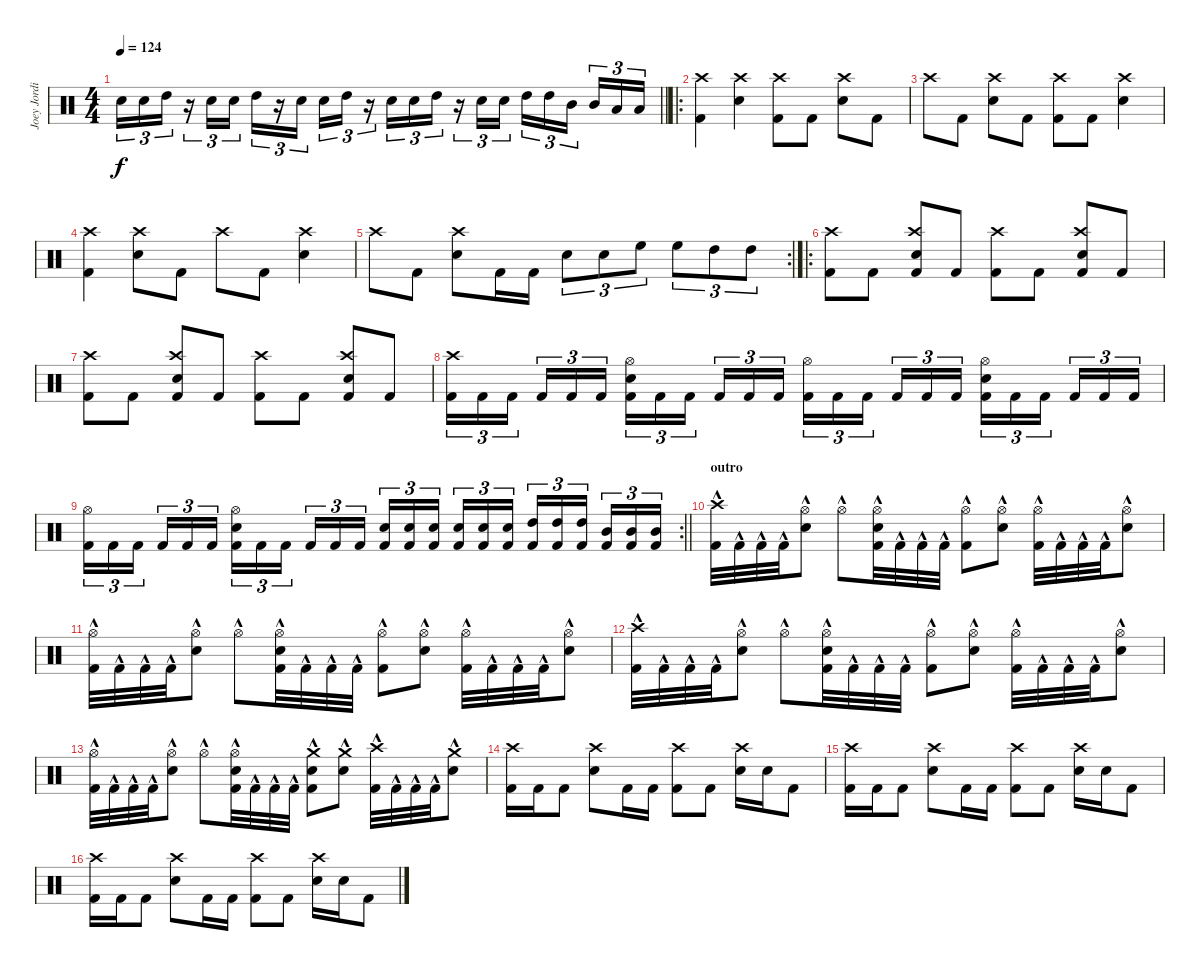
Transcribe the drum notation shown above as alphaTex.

\track ("Joey Jordison" "Joey Jordi") {instrument percussion}
\staff
\articulation defaults
\ts (4 4)
\tempo 124
\clef neutral
\barLineRight lightlight
\ks c "Electric Snare (hit)".16{tu (3 2) dy f} "Electric Snare (hit)".16{tu (3 2)} "High Tom (hit)".16{tu (3 2)}
r.16{tu (3 2)} "Electric Snare (hit)".16{tu (3 2)} "Electric Snare (hit)".16{tu (3 2)} "High Tom (hit)".16{tu (3 2)} r.16{tu (3 2)} "Electric Snare (hit)".16{tu (3 2) beam splitsecondary} "Electric Snare (hit)".16{tu (3 2)} "High Tom (hit)".16{tu (3 2)} r.16{tu (3 2)} "Electric Snare (hit)".16{tu (3 2)} "Electric Snare (hit)".16{tu (3 2)} "High Tom (hit)".16{tu (3 2)} r.16{tu (3 2)} "Electric Snare (hit)".16{tu (3 2)} "Electric Snare (hit)".16{tu (3 2)} "High Tom (hit)".16{tu (3 2)} "High Tom (hit)".16{tu (3 2)} "Mid Tom (hit)".16{tu (3 2) beam splitsecondary} "Mid Tom (hit)".16{tu (3 2)} "Low Tom (hit)".16{tu (3 2)} "Low Tom (hit)".16{tu (3 2)} |
\ro
("Crash high (hit)" "Kick (hit) 2").4 ("Crash high (hit)" "Electric Snare (hit)").4 ("Crash high (hit)" "Kick (hit) 2").8 "Kick (hit) 2".8 ("Crash high (hit)" "Electric Snare (hit)").8 "Kick (hit) 2".8 |
"Crash high (hit)".8 "Kick (hit) 2".8 ("Crash high (hit)" "Electric Snare (hit)").8 "Kick (hit) 2".8 ("Crash high (hit)" "Kick (hit) 2").8 "Kick (hit) 2".8 ("Crash high (hit)" "Electric Snare (hit)").4 |
("Crash high (hit)" "Kick (hit) 2").4 ("Crash high (hit)" "Electric Snare (hit)").8 "Kick (hit) 2".8 "Crash high (hit)".8 "Kick (hit) 2".8 ("Crash high (hit)" "Electric Snare (hit)").4 |
\rc 2 "Crash high (hit)".8 "Kick (hit) 2".8
("Crash high (hit)" "Electric Snare (hit)").8 "Kick (hit) 2".16 "Kick (hit) 2".16 "Electric Snare (hit)".8{tu (3 2)} "Electric Snare (hit)".8{tu (3 2)} "High Floor Tom (hit)".8{tu (3 2)} "High Floor Tom (hit)".8{tu (3 2)} "High Tom (hit)".8{tu (3 2)} "High Tom (hit)".8{tu (3 2)} |
\ro
("Crash high (hit)" "Kick (hit) 2").8 "Kick (hit) 2".8 ("Crash high (hit)" "Electric Snare (hit)" "Kick (hit) 2").8 "Kick (hit) 2".8 ("Crash high (hit)" "Kick (hit) 2").8 "Kick (hit) 2".8 ("Crash high (hit)" "Electric Snare (hit)" "Kick (hit) 2").8 "Kick (hit) 2".8 |
("Crash high (hit)" "Kick (hit) 2").8 "Kick (hit) 2".8 ("Crash high (hit)" "Electric Snare (hit)" "Kick (hit) 2").8 "Kick (hit) 2".8 ("Crash high (hit)" "Kick (hit) 2").8 "Kick (hit) 2".8 ("Crash high (hit)" "Electric Snare (hit)" "Kick (hit) 2").8 "Kick (hit) 2".8 |
("Crash high (hit)" "Kick (hit) 2").16{tu (3 2)} "Kick (hit) 2".16{tu (3 2)} "Kick (hit) 2".16{tu (3 2) beam splitsecondary} "Kick (hit) 2".16{tu (3 2)} "Kick (hit) 2".16{tu (3 2)} "Kick (hit) 2".16{tu (3 2)} ("Hi-Hat (open)" "Electric Snare (hit)" "Kick (hit) 2").16{tu (3 2)} "Kick (hit) 2".16{tu (3 2)} "Kick (hit) 2".16{tu (3 2) beam splitsecondary} "Kick (hit) 2".16{tu (3 2)} "Kick (hit) 2".16{tu (3 2)} "Kick (hit) 2".16{tu (3 2)} ("Hi-Hat (open)" "Kick (hit) 2").16{tu (3 2)} "Kick (hit) 2".16{tu (3 2)} "Kick (hit) 2".16{tu (3 2) beam splitsecondary} "Kick (hit) 2".16{tu (3 2)} "Kick (hit) 2".16{tu (3 2)} "Kick (hit) 2".16{tu (3 2)} ("Hi-Hat (open)" "Electric Snare (hit)" "Kick (hit) 2").16{tu (3 2)} "Kick (hit) 2".16{tu (3 2)} "Kick (hit) 2".16{tu (3 2) beam splitsecondary} "Kick (hit) 2".16{tu (3 2)} "Kick (hit) 2".16{tu (3 2)} "Kick (hit) 2".16{tu (3 2)} |
\rc 2
\barLineRight lightlight
("Hi-Hat (open)" "Kick (hit) 2").16{tu (3 2)} "Kick (hit) 2".16{tu (3 2)} "Kick (hit) 2".16{tu (3 2) beam splitsecondary} "Kick (hit) 2".16{tu (3 2)} "Kick (hit) 2".16{tu (3 2)} "Kick (hit) 2".16{tu (3 2)} ("Hi-Hat (open)" "Electric Snare (hit)" "Kick (hit) 2").16{tu (3 2)} "Kick (hit) 2".16{tu (3 2)} "Kick (hit) 2".16{tu (3 2) beam splitsecondary} "Kick (hit) 2".16{tu (3 2)} "Kick (hit) 2".16{tu (3 2)} "Kick (hit) 2".16{tu (3 2)} ("Electric Snare (hit)" "Kick (hit) 2").16{tu (3 2)} ("Electric Snare (hit)" "Kick (hit) 2").16{tu (3 2)} ("Electric Snare (hit)" "Kick (hit) 2").16{tu (3 2) beam splitsecondary} ("Electric Snare (hit)" "Kick (hit) 2").16{tu (3 2)} ("Electric Snare (hit)" "Kick (hit) 2").16{tu (3 2)} ("Electric Snare (hit)" "Kick (hit) 2").16{tu (3 2)} ("High Tom (hit)" "Kick (hit) 2").16{tu (3 2)} ("High Tom (hit)" "Kick (hit) 2").16{tu (3 2)} ("High Tom (hit)" "Kick (hit) 2").16{tu (3 2) beam splitsecondary} ("Mid Tom (hit)" "Kick (hit) 2").16{tu (3 2)} ("Mid Tom (hit)" "Kick (hit) 2").16{tu (3 2)} ("Mid Tom (hit)" "Kick (hit) 2").16{tu (3 2)} |
\section ("" "outro")
("Crash high (hit)"{hac} "Kick (hit) 2"{hac}).32 "Kick (hit) 2"{hac}.32 "Kick (hit) 2"{hac}.32 "Kick (hit) 2"{hac}.32 ("Hi-Hat (open)"{hac} "Electric Snare (hit)"{hac}).8 "Hi-Hat (open)"{hac}.8 ("Hi-Hat (open)"{hac} "Electric Snare (hit)"{hac} "Kick (hit) 2"{hac}).32 "Kick (hit) 2"{hac}.32 "Kick (hit) 2"{hac}.32 "Kick (hit) 2"{hac}.32 ("Hi-Hat (open)"{hac} "Kick (hit) 2"{hac}).8 ("Hi-Hat (open)"{hac} "Electric Snare (hit)"{hac}).8 ("Hi-Hat (open)"{hac} "Kick (hit) 2"{hac}).32 "Kick (hit) 2"{hac}.32 "Kick (hit) 2"{hac}.32 "Kick (hit) 2"{hac}.32 ("Hi-Hat (open)"{hac} "Electric Snare (hit)"{hac}).8 |
("Hi-Hat (open)"{hac} "Kick (hit) 2"{hac}).32 "Kick (hit) 2"{hac}.32 "Kick (hit) 2"{hac}.32 "Kick (hit) 2"{hac}.32 ("Hi-Hat (open)"{hac} "Electric Snare (hit)"{hac}).8 "Hi-Hat (open)"{hac}.8 ("Hi-Hat (open)"{hac} "Electric Snare (hit)"{hac} "Kick (hit) 2"{hac}).32 "Kick (hit) 2"{hac}.32 "Kick (hit) 2"{hac}.32 "Kick (hit) 2"{hac}.32 ("Hi-Hat (open)"{hac} "Kick (hit) 2"{hac}).8 ("Hi-Hat (open)"{hac} "Electric Snare (hit)"{hac}).8 ("Hi-Hat (open)"{hac} "Kick (hit) 2"{hac}).32 "Kick (hit) 2"{hac}.32 "Kick (hit) 2"{hac}.32 "Kick (hit) 2"{hac}.32 ("Hi-Hat (open)"{hac} "Electric Snare (hit)"{hac}).8 |
("Crash high (hit)"{hac} "Kick (hit) 2"{hac}).32 "Kick (hit) 2"{hac}.32 "Kick (hit) 2"{hac}.32 "Kick (hit) 2"{hac}.32 ("Hi-Hat (open)"{hac} "Electric Snare (hit)"{hac}).8 "Hi-Hat (open)"{hac}.8 ("Hi-Hat (open)"{hac} "Electric Snare (hit)"{hac} "Kick (hit) 2"{hac}).32 "Kick (hit) 2"{hac}.32 "Kick (hit) 2"{hac}.32 "Kick (hit) 2"{hac}.32 ("Hi-Hat (open)"{hac} "Kick (hit) 2"{hac}).8 ("Hi-Hat (open)"{hac} "Electric Snare (hit)"{hac}).8 ("Hi-Hat (open)"{hac} "Kick (hit) 2"{hac}).32 "Kick (hit) 2"{hac}.32 "Kick (hit) 2"{hac}.32 "Kick (hit) 2"{hac}.32 ("Hi-Hat (open)"{hac} "Electric Snare (hit)"{hac}).8 |
("Hi-Hat (open)"{hac} "Kick (hit) 2"{hac}).32 "Kick (hit) 2"{hac}.32 "Kick (hit) 2"{hac}.32 "Kick (hit) 2"{hac}.32 ("Hi-Hat (open)"{hac} "Electric Snare (hit)"{hac}).8 "Hi-Hat (open)"{hac}.8 ("Hi-Hat (open)"{hac} "Electric Snare (hit)"{hac} "Kick (hit) 2"{hac}).32 "Kick (hit) 2"{hac}.32 "Kick (hit) 2"{hac}.32 "Kick (hit) 2"{hac}.32 ("Crash medium (hit)"{hac} "Electric Snare (hit)" "Kick (hit) 2"{hac}).8 ("Crash medium (hit)"{hac} "Electric Snare (hit)"{hac}).8 ("Crash high (hit)"{hac} "Kick (hit) 2"{hac}).32 "Kick (hit) 2"{hac}.32 "Kick (hit) 2"{hac}.32 "Kick (hit) 2"{hac}.32 ("Crash medium (hit)"{hac} "Electric Snare (hit)"{hac}).8 |
("Crash high (hit)" "Kick (hit) 2").16 "Kick (hit) 2".16 "Kick (hit) 2".8 ("Crash high (hit)" "Electric Snare (hit)").8 "Kick (hit) 2".16 "Kick (hit) 2".16 ("Crash high (hit)" "Kick (hit) 2").8 "Kick (hit) 2".8 ("Crash high (hit)" "Electric Snare (hit)").16 "Electric Snare (hit)".16 "Kick (hit) 2".8 |
("Crash high (hit)" "Kick (hit) 2").16 "Kick (hit) 2".16 "Kick (hit) 2".8 ("Crash high (hit)" "Electric Snare (hit)").8 "Kick (hit) 2".16 "Kick (hit) 2".16 ("Crash high (hit)" "Kick (hit) 2").8 "Kick (hit) 2".8 ("Crash high (hit)" "Electric Snare (hit)").16 "Electric Snare (hit)".16 "Kick (hit) 2".8 |
("Crash high (hit)" "Kick (hit) 2").16 "Kick (hit) 2".16 "Kick (hit) 2".8 ("Crash high (hit)" "Electric Snare (hit)").8 "Kick (hit) 2".16 "Kick (hit) 2".16 ("Crash high (hit)" "Kick (hit) 2").8 "Kick (hit) 2".8 ("Crash high (hit)" "Electric Snare (hit)").16 "Electric Snare (hit)".16 "Kick (hit) 2".8
